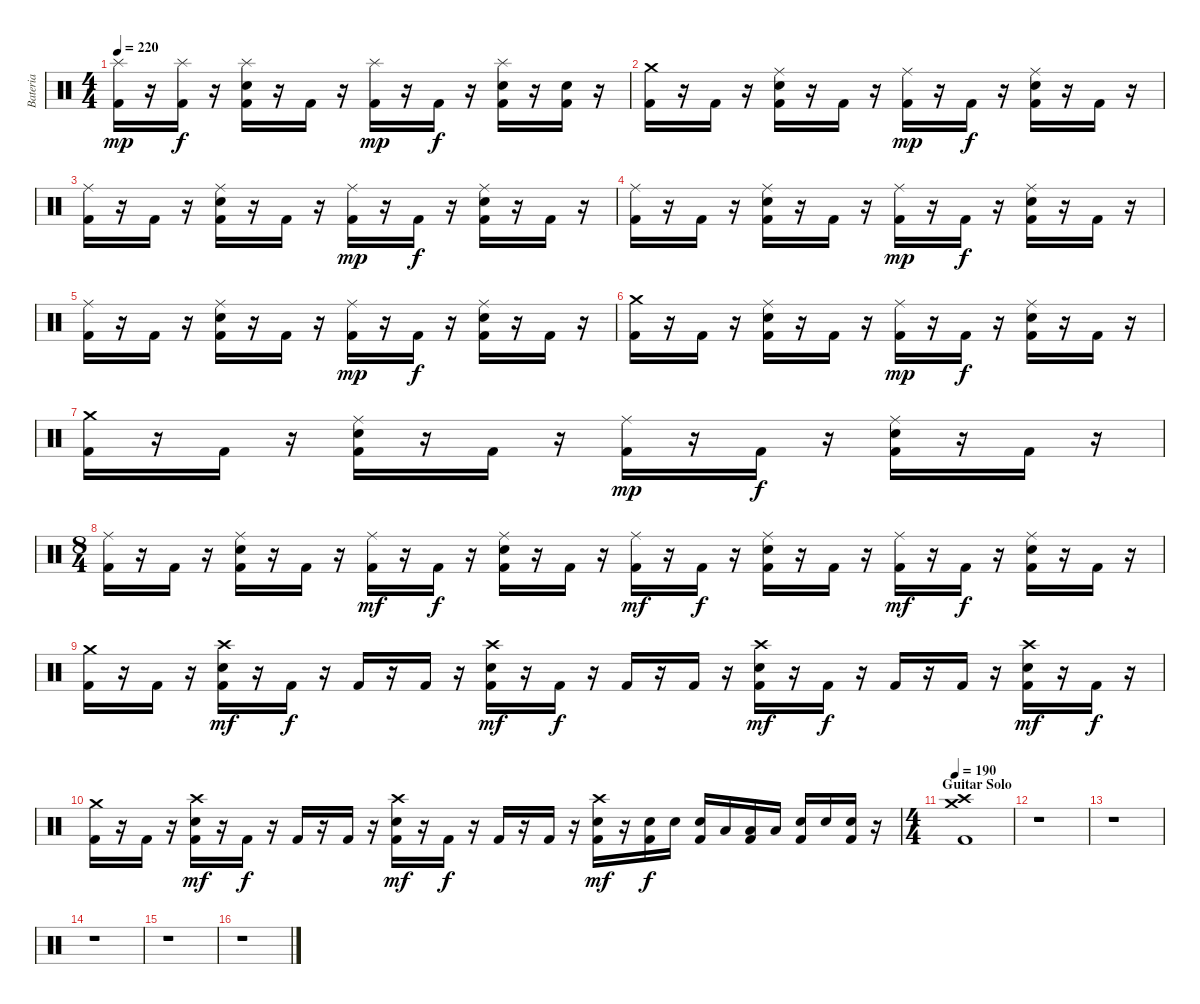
\track ("Bateria" "Bateria") {instrument percussion}
\staff {score}
\articulation defaults
\ts (4 4)
\tempo 220
\clef neutral
\ks c
("Splash (hit)" "Kick (hit) 2").16{dy mp} r.16 ("Splash (hit)" "Kick (hit) 2").16{dy f} r.16 ("Splash (hit)" "Electric Snare (hit)" "Kick (hit) 2").16 r.16 "Kick (hit) 2".16 r.16 ("Splash (hit)" "Kick (hit) 2").16{dy mp} r.16 "Kick (hit) 2".16{dy f} r.16 ("Splash (hit)" "Electric Snare (hit)" "Kick (hit) 2").16 r.16 ("Electric Snare (hit)" "Kick (hit) 2").16 r.16 |
("Crash medium (hit)" "Kick (hit) 2").16 r.16 "Kick (hit) 2".16 r.16 ("Ride (middle)" "Electric Snare (hit)" "Kick (hit) 2").16 r.16 "Kick (hit) 2".16 r.16 ("Ride (middle)" "Kick (hit) 2").16{dy mp} r.16 "Kick (hit) 2".16{dy f} r.16 ("Ride (middle)" "Electric Snare (hit)" "Kick (hit) 2").16 r.16 "Kick (hit) 2".16 r.16 |
("Ride (middle)" "Kick (hit) 2").16 r.16 "Kick (hit) 2".16 r.16 ("Ride (middle)" "Electric Snare (hit)" "Kick (hit) 2").16 r.16 "Kick (hit) 2".16 r.16 ("Ride (middle)" "Kick (hit) 2").16{dy mp} r.16 "Kick (hit) 2".16{dy f} r.16 ("Ride (middle)" "Electric Snare (hit)" "Kick (hit) 2").16 r.16 "Kick (hit) 2".16 r.16 |
("Ride (middle)" "Kick (hit) 2").16 r.16 "Kick (hit) 2".16 r.16 ("Ride (middle)" "Electric Snare (hit)" "Kick (hit) 2").16 r.16 "Kick (hit) 2".16 r.16 ("Ride (middle)" "Kick (hit) 2").16{dy mp} r.16 "Kick (hit) 2".16{dy f} r.16 ("Ride (middle)" "Electric Snare (hit)" "Kick (hit) 2").16 r.16 "Kick (hit) 2".16 r.16 |
("Ride (middle)" "Kick (hit) 2").16 r.16 "Kick (hit) 2".16 r.16 ("Ride (middle)" "Electric Snare (hit)" "Kick (hit) 2").16 r.16 "Kick (hit) 2".16 r.16 ("Ride (middle)" "Kick (hit) 2").16{dy mp} r.16 "Kick (hit) 2".16{dy f} r.16 ("Ride (middle)" "Electric Snare (hit)" "Kick (hit) 2").16 r.16 "Kick (hit) 2".16 r.16 |
("Crash medium (hit)" "Kick (hit) 2").16 r.16 "Kick (hit) 2".16 r.16 ("Ride (middle)" "Electric Snare (hit)" "Kick (hit) 2").16 r.16 "Kick (hit) 2".16 r.16 ("Ride (middle)" "Kick (hit) 2").16{dy mp} r.16 "Kick (hit) 2".16{dy f} r.16 ("Ride (middle)" "Electric Snare (hit)" "Kick (hit) 2").16 r.16 "Kick (hit) 2".16 r.16 |
("Crash medium (hit)" "Kick (hit) 2").16 r.16 "Kick (hit) 2".16 r.16 ("Ride (middle)" "Electric Snare (hit)" "Kick (hit) 2").16 r.16 "Kick (hit) 2".16 r.16 ("Ride (middle)" "Kick (hit) 2").16{dy mp} r.16 "Kick (hit) 2".16{dy f} r.16 ("Ride (middle)" "Electric Snare (hit)" "Kick (hit) 2").16 r.16 "Kick (hit) 2".16 r.16 |
\ts (8 4)
("Ride (middle)" "Kick (hit) 2").16 r.16 "Kick (hit) 2".16 r.16 ("Ride (middle)" "Electric Snare (hit)" "Kick (hit) 2").16 r.16 "Kick (hit) 2".16 r.16 ("Ride (middle)" "Kick (hit) 2").16{dy mf} r.16 "Kick (hit) 2".16{dy f} r.16 ("Ride (middle)" "Electric Snare (hit)" "Kick (hit) 2").16 r.16 "Kick (hit) 2".16 r.16 ("Ride (middle)" "Kick (hit) 2").16{dy mf} r.16 "Kick (hit) 2".16{dy f} r.16 ("Ride (middle)" "Electric Snare (hit)" "Kick (hit) 2").16 r.16 "Kick (hit) 2".16 r.16 ("Ride (middle)" "Kick (hit) 2").16{dy mf} r.16 "Kick (hit) 2".16{dy f} r.16 ("Ride (middle)" "Electric Snare (hit)" "Kick (hit) 2").16 r.16 "Kick (hit) 2".16 r.16 |
("Crash medium (hit)" "Kick (hit) 2").16 r.16 "Kick (hit) 2".16 r.16 ("Crash high (hit)" "Electric Snare (hit)" "Kick (hit) 2").16{dy mf} r.16 "Kick (hit) 2".16{dy f} r.16 "Kick (hit) 2".16 r.16 "Kick (hit) 2".16 r.16 ("Crash high (hit)" "Electric Snare (hit)" "Kick (hit) 2").16{dy mf} r.16 "Kick (hit) 2".16{dy f} r.16 "Kick (hit) 2".16 r.16 "Kick (hit) 2".16 r.16 ("Crash high (hit)" "Electric Snare (hit)" "Kick (hit) 2").16{dy mf} r.16 "Kick (hit) 2".16{dy f} r.16 "Kick (hit) 2".16 r.16 "Kick (hit) 2".16 r.16 ("Crash high (hit)" "Electric Snare (hit)" "Kick (hit) 2").16{dy mf} r.16 "Kick (hit) 2".16{dy f} r.16 |
("Crash medium (hit)" "Kick (hit) 2").16 r.16 "Kick (hit) 2".16 r.16 ("Crash high (hit)" "Electric Snare (hit)" "Kick (hit) 2").16{dy mf} r.16 "Kick (hit) 2".16{dy f} r.16 "Kick (hit) 2".16 r.16 "Kick (hit) 2".16 r.16 ("Crash high (hit)" "Electric Snare (hit)" "Kick (hit) 2").16{dy mf} r.16 "Kick (hit) 2".16{dy f} r.16 "Kick (hit) 2".16 r.16 "Kick (hit) 2".16 r.16 ("Crash high (hit)" "Electric Snare (hit)" "Kick (hit) 2").16{dy mf} r.16 ("Electric Snare (hit)" "Kick (hit) 2").16{dy f} "Electric Snare (hit)".16 ("Electric Snare (hit)" "Kick (hit) 2").16 "Low Tom (hit)".16 ("Low Tom (hit)" "Kick (hit) 2").16 "Low Tom (hit)".16 ("Electric Snare (hit)" "Kick (hit) 2").16 "Electric Snare (hit)".16 ("Electric Snare (hit)" "Kick (hit) 2").16 r.16 |
\ts (4 4)
\section ("" "Guitar Solo")
\tempo 190
("Crash medium (hit)" "Crash high (hit)" "Kick (hit) 2").1 |
r.1 |
r.1 |
r.1 |
r.1 |
r.1
